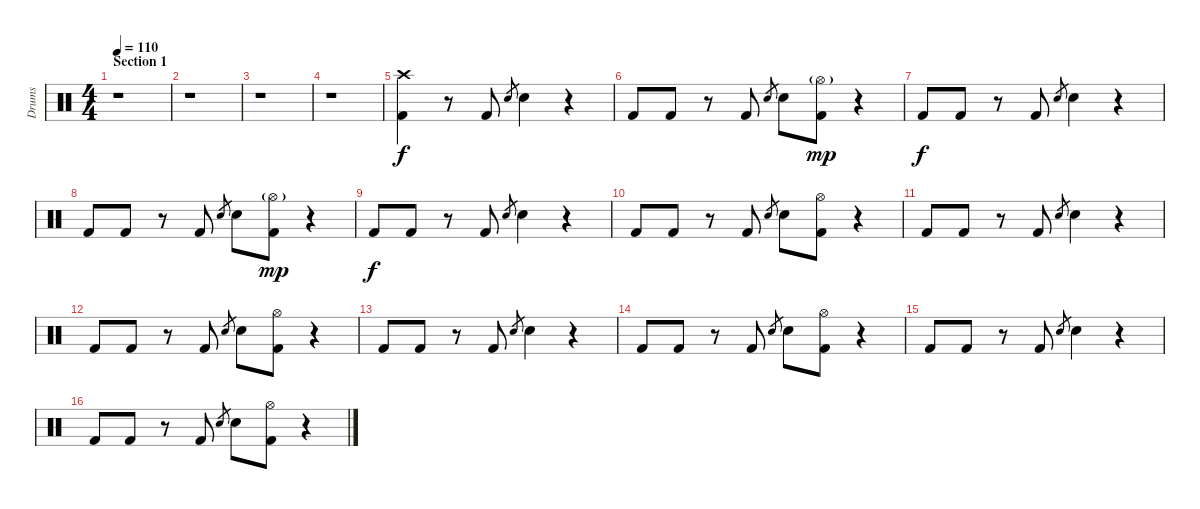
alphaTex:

\track ("Drums" "Drums") {instrument percussion}
\staff {score}
\articulation defaults
\ts (4 4)
\section ("" "Section 1")
\tempo 110
\clef neutral
\ks c
r.1{dy f} |
r.1 |
r.1 |
r.1 |
("Crash high (hit)" "Kick (hit) 2").4 r.8 "Kick (hit) 2".8 "Snare (hit) 2".8{gr} "Snare (hit) 2".4 r.4 |
"Kick (hit) 2".8 "Kick (hit) 2".8 r.8 "Kick (hit) 2".8 "Snare (hit) 2".8{gr} "Snare (hit) 2".8 ("Hi-Hat (open)"{g} "Kick (hit) 2").8{dy mp} r.4 |
"Kick (hit) 2".8{dy f} "Kick (hit) 2".8 r.8 "Kick (hit) 2".8 "Snare (hit) 2".8{gr} "Snare (hit) 2".4 r.4 |
"Kick (hit) 2".8 "Kick (hit) 2".8 r.8 "Kick (hit) 2".8 "Snare (hit) 2".8{gr} "Snare (hit) 2".8 ("Hi-Hat (open)"{g} "Kick (hit) 2").8{dy mp} r.4 |
"Kick (hit) 2".8{dy f} "Kick (hit) 2".8 r.8 "Kick (hit) 2".8 "Snare (hit) 2".8{gr} "Snare (hit) 2".4 r.4 |
"Kick (hit) 2".8 "Kick (hit) 2".8 r.8 "Kick (hit) 2".8 "Snare (hit) 2".8{gr} "Snare (hit) 2".8 ("Hi-Hat (open)" "Kick (hit) 2").8 r.4 |
"Kick (hit) 2".8 "Kick (hit) 2".8 r.8 "Kick (hit) 2".8 "Snare (hit) 2".8{gr} "Snare (hit) 2".4 r.4 |
"Kick (hit) 2".8 "Kick (hit) 2".8 r.8 "Kick (hit) 2".8 "Snare (hit) 2".8{gr} "Snare (hit) 2".8 ("Hi-Hat (open)" "Kick (hit) 2").8 r.4 |
"Kick (hit) 2".8 "Kick (hit) 2".8 r.8 "Kick (hit) 2".8 "Snare (hit) 2".8{gr} "Snare (hit) 2".4 r.4 |
"Kick (hit) 2".8 "Kick (hit) 2".8 r.8 "Kick (hit) 2".8 "Snare (hit) 2".8{gr} "Snare (hit) 2".8 ("Hi-Hat (open)" "Kick (hit) 2").8 r.4 |
"Kick (hit) 2".8 "Kick (hit) 2".8 r.8 "Kick (hit) 2".8 "Snare (hit) 2".8{gr} "Snare (hit) 2".4 r.4 |
"Kick (hit) 2".8 "Kick (hit) 2".8 r.8 "Kick (hit) 2".8 "Snare (hit) 2".8{gr} "Snare (hit) 2".8 ("Hi-Hat (open)" "Kick (hit) 2").8 r.4
